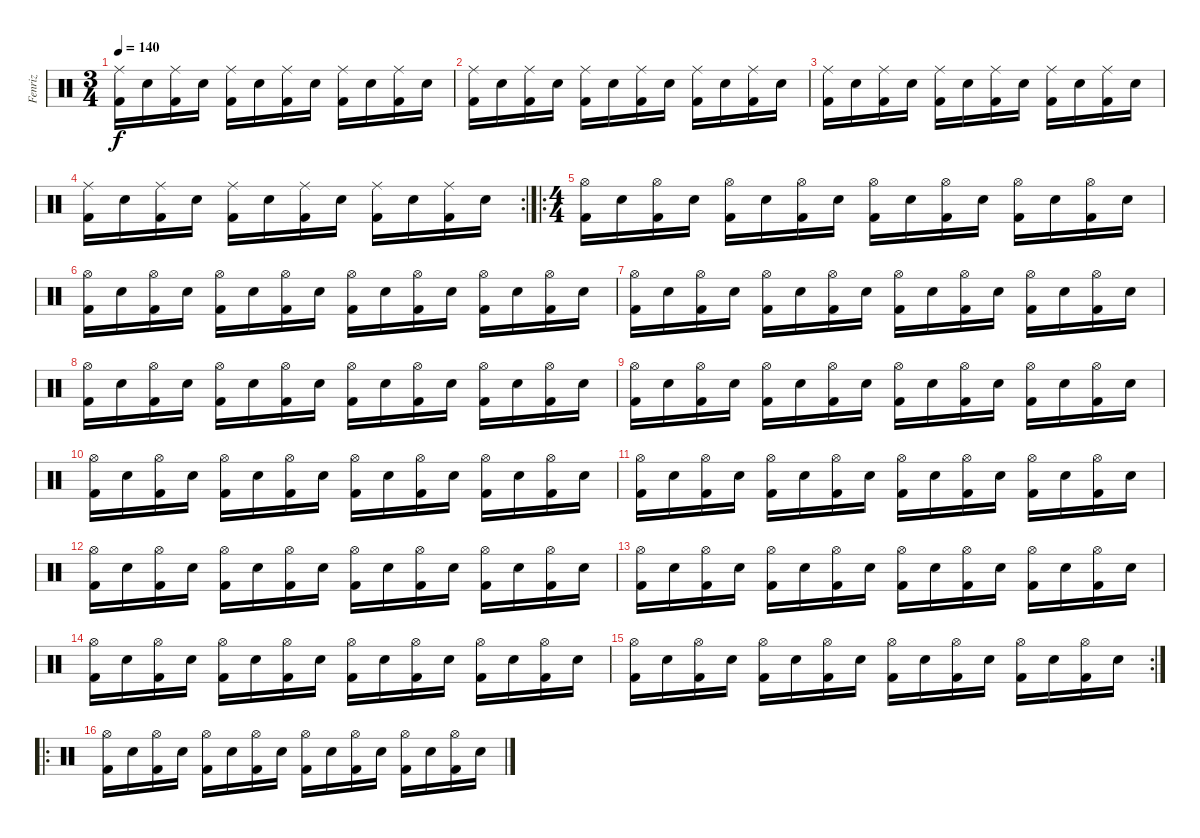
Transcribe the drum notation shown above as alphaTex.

\track ("Fenriz" "Fenriz") {instrument percussion}
\staff {score}
\articulation defaults
\ts (3 4)
\tempo 140
\clef neutral
\ks c
("Ride (middle)" "Kick (hit) 2").16{dy f} "Snare (hit) 2".16 ("Ride (middle)" "Kick (hit) 2").16 "Snare (hit) 2".16 ("Ride (middle)" "Kick (hit) 2").16 "Snare (hit) 2".16 ("Ride (middle)" "Kick (hit) 2").16 "Snare (hit) 2".16 ("Ride (middle)" "Kick (hit) 2").16 "Snare (hit) 2".16 ("Ride (middle)" "Kick (hit) 2").16 "Snare (hit) 2".16 |
("Ride (middle)" "Kick (hit) 2").16 "Snare (hit) 2".16 ("Ride (middle)" "Kick (hit) 2").16 "Snare (hit) 2".16 ("Ride (middle)" "Kick (hit) 2").16 "Snare (hit) 2".16 ("Ride (middle)" "Kick (hit) 2").16 "Snare (hit) 2".16 ("Ride (middle)" "Kick (hit) 2").16 "Snare (hit) 2".16 ("Ride (middle)" "Kick (hit) 2").16 "Snare (hit) 2".16 |
("Ride (middle)" "Kick (hit) 2").16 "Snare (hit) 2".16 ("Ride (middle)" "Kick (hit) 2").16 "Snare (hit) 2".16 ("Ride (middle)" "Kick (hit) 2").16 "Snare (hit) 2".16 ("Ride (middle)" "Kick (hit) 2").16 "Snare (hit) 2".16 ("Ride (middle)" "Kick (hit) 2").16 "Snare (hit) 2".16 ("Ride (middle)" "Kick (hit) 2").16 "Snare (hit) 2".16 |
\rc 2
("Ride (middle)" "Kick (hit) 2").16 "Snare (hit) 2".16 ("Ride (middle)" "Kick (hit) 2").16 "Snare (hit) 2".16 ("Ride (middle)" "Kick (hit) 2").16 "Snare (hit) 2".16 ("Ride (middle)" "Kick (hit) 2").16 "Snare (hit) 2".16 ("Ride (middle)" "Kick (hit) 2").16 "Snare (hit) 2".16 ("Ride (middle)" "Kick (hit) 2").16 "Snare (hit) 2".16 |
\ro
\ts (4 4)
("Hi-Hat (open)" "Kick (hit) 2").16 "Snare (hit) 2".16 ("Hi-Hat (open)" "Kick (hit) 2").16 "Snare (hit) 2".16 ("Hi-Hat (open)" "Kick (hit) 2").16 "Snare (hit) 2".16 ("Hi-Hat (open)" "Kick (hit) 2").16 "Snare (hit) 2".16 ("Hi-Hat (open)" "Kick (hit) 2").16 "Snare (hit) 2".16 ("Hi-Hat (open)" "Kick (hit) 2").16 "Snare (hit) 2".16 ("Hi-Hat (open)" "Kick (hit) 2").16 "Snare (hit) 2".16 ("Hi-Hat (open)" "Kick (hit) 2").16 "Snare (hit) 2".16 |
("Hi-Hat (open)" "Kick (hit) 2").16 "Snare (hit) 2".16 ("Hi-Hat (open)" "Kick (hit) 2").16 "Snare (hit) 2".16 ("Hi-Hat (open)" "Kick (hit) 2").16 "Snare (hit) 2".16 ("Hi-Hat (open)" "Kick (hit) 2").16 "Snare (hit) 2".16 ("Hi-Hat (open)" "Kick (hit) 2").16 "Snare (hit) 2".16 ("Hi-Hat (open)" "Kick (hit) 2").16 "Snare (hit) 2".16 ("Hi-Hat (open)" "Kick (hit) 2").16 "Snare (hit) 2".16 ("Hi-Hat (open)" "Kick (hit) 2").16 "Snare (hit) 2".16 |
("Hi-Hat (open)" "Kick (hit) 2").16 "Snare (hit) 2".16 ("Hi-Hat (open)" "Kick (hit) 2").16 "Snare (hit) 2".16 ("Hi-Hat (open)" "Kick (hit) 2").16 "Snare (hit) 2".16 ("Hi-Hat (open)" "Kick (hit) 2").16 "Snare (hit) 2".16 ("Hi-Hat (open)" "Kick (hit) 2").16 "Snare (hit) 2".16 ("Hi-Hat (open)" "Kick (hit) 2").16 "Snare (hit) 2".16 ("Hi-Hat (open)" "Kick (hit) 2").16 "Snare (hit) 2".16 ("Hi-Hat (open)" "Kick (hit) 2").16 "Snare (hit) 2".16 |
("Hi-Hat (open)" "Kick (hit) 2").16 "Snare (hit) 2".16 ("Hi-Hat (open)" "Kick (hit) 2").16 "Snare (hit) 2".16 ("Hi-Hat (open)" "Kick (hit) 2").16 "Snare (hit) 2".16 ("Hi-Hat (open)" "Kick (hit) 2").16 "Snare (hit) 2".16 ("Hi-Hat (open)" "Kick (hit) 2").16 "Snare (hit) 2".16 ("Hi-Hat (open)" "Kick (hit) 2").16 "Snare (hit) 2".16 ("Hi-Hat (open)" "Kick (hit) 2").16 "Snare (hit) 2".16 ("Hi-Hat (open)" "Kick (hit) 2").16 "Snare (hit) 2".16 |
("Hi-Hat (open)" "Kick (hit) 2").16 "Snare (hit) 2".16 ("Hi-Hat (open)" "Kick (hit) 2").16 "Snare (hit) 2".16 ("Hi-Hat (open)" "Kick (hit) 2").16 "Snare (hit) 2".16 ("Hi-Hat (open)" "Kick (hit) 2").16 "Snare (hit) 2".16 ("Hi-Hat (open)" "Kick (hit) 2").16 "Snare (hit) 2".16 ("Hi-Hat (open)" "Kick (hit) 2").16 "Snare (hit) 2".16 ("Hi-Hat (open)" "Kick (hit) 2").16 "Snare (hit) 2".16 ("Hi-Hat (open)" "Kick (hit) 2").16 "Snare (hit) 2".16 |
("Hi-Hat (open)" "Kick (hit) 2").16 "Snare (hit) 2".16 ("Hi-Hat (open)" "Kick (hit) 2").16 "Snare (hit) 2".16 ("Hi-Hat (open)" "Kick (hit) 2").16 "Snare (hit) 2".16 ("Hi-Hat (open)" "Kick (hit) 2").16 "Snare (hit) 2".16 ("Hi-Hat (open)" "Kick (hit) 2").16 "Snare (hit) 2".16 ("Hi-Hat (open)" "Kick (hit) 2").16 "Snare (hit) 2".16 ("Hi-Hat (open)" "Kick (hit) 2").16 "Snare (hit) 2".16 ("Hi-Hat (open)" "Kick (hit) 2").16 "Snare (hit) 2".16 |
("Hi-Hat (open)" "Kick (hit) 2").16 "Snare (hit) 2".16 ("Hi-Hat (open)" "Kick (hit) 2").16 "Snare (hit) 2".16 ("Hi-Hat (open)" "Kick (hit) 2").16 "Snare (hit) 2".16 ("Hi-Hat (open)" "Kick (hit) 2").16 "Snare (hit) 2".16 ("Hi-Hat (open)" "Kick (hit) 2").16 "Snare (hit) 2".16 ("Hi-Hat (open)" "Kick (hit) 2").16 "Snare (hit) 2".16 ("Hi-Hat (open)" "Kick (hit) 2").16 "Snare (hit) 2".16 ("Hi-Hat (open)" "Kick (hit) 2").16 "Snare (hit) 2".16 |
("Hi-Hat (open)" "Kick (hit) 2").16 "Snare (hit) 2".16 ("Hi-Hat (open)" "Kick (hit) 2").16 "Snare (hit) 2".16 ("Hi-Hat (open)" "Kick (hit) 2").16 "Snare (hit) 2".16 ("Hi-Hat (open)" "Kick (hit) 2").16 "Snare (hit) 2".16 ("Hi-Hat (open)" "Kick (hit) 2").16 "Snare (hit) 2".16 ("Hi-Hat (open)" "Kick (hit) 2").16 "Snare (hit) 2".16 ("Hi-Hat (open)" "Kick (hit) 2").16 "Snare (hit) 2".16 ("Hi-Hat (open)" "Kick (hit) 2").16 "Snare (hit) 2".16 |
("Hi-Hat (open)" "Kick (hit) 2").16 "Snare (hit) 2".16 ("Hi-Hat (open)" "Kick (hit) 2").16 "Snare (hit) 2".16 ("Hi-Hat (open)" "Kick (hit) 2").16 "Snare (hit) 2".16 ("Hi-Hat (open)" "Kick (hit) 2").16 "Snare (hit) 2".16 ("Hi-Hat (open)" "Kick (hit) 2").16 "Snare (hit) 2".16 ("Hi-Hat (open)" "Kick (hit) 2").16 "Snare (hit) 2".16 ("Hi-Hat (open)" "Kick (hit) 2").16 "Snare (hit) 2".16 ("Hi-Hat (open)" "Kick (hit) 2").16 "Snare (hit) 2".16 |
("Hi-Hat (open)" "Kick (hit) 2").16 "Snare (hit) 2".16 ("Hi-Hat (open)" "Kick (hit) 2").16 "Snare (hit) 2".16 ("Hi-Hat (open)" "Kick (hit) 2").16 "Snare (hit) 2".16 ("Hi-Hat (open)" "Kick (hit) 2").16 "Snare (hit) 2".16 ("Hi-Hat (open)" "Kick (hit) 2").16 "Snare (hit) 2".16 ("Hi-Hat (open)" "Kick (hit) 2").16 "Snare (hit) 2".16 ("Hi-Hat (open)" "Kick (hit) 2").16 "Snare (hit) 2".16 ("Hi-Hat (open)" "Kick (hit) 2").16 "Snare (hit) 2".16 |
\rc 2
("Hi-Hat (open)" "Kick (hit) 2").16 "Snare (hit) 2".16 ("Hi-Hat (open)" "Kick (hit) 2").16 "Snare (hit) 2".16 ("Hi-Hat (open)" "Kick (hit) 2").16 "Snare (hit) 2".16 ("Hi-Hat (open)" "Kick (hit) 2").16 "Snare (hit) 2".16 ("Hi-Hat (open)" "Kick (hit) 2").16 "Snare (hit) 2".16 ("Hi-Hat (open)" "Kick (hit) 2").16 "Snare (hit) 2".16 ("Hi-Hat (open)" "Kick (hit) 2").16 "Snare (hit) 2".16 ("Hi-Hat (open)" "Kick (hit) 2").16 "Snare (hit) 2".16 |
\ro
("Hi-Hat (open)" "Kick (hit) 2").16 "Snare (hit) 2".16 ("Hi-Hat (open)" "Kick (hit) 2").16 "Snare (hit) 2".16 ("Hi-Hat (open)" "Kick (hit) 2").16 "Snare (hit) 2".16 ("Hi-Hat (open)" "Kick (hit) 2").16 "Snare (hit) 2".16 ("Hi-Hat (open)" "Kick (hit) 2").16 "Snare (hit) 2".16 ("Hi-Hat (open)" "Kick (hit) 2").16 "Snare (hit) 2".16 ("Hi-Hat (open)" "Kick (hit) 2").16 "Snare (hit) 2".16 ("Hi-Hat (open)" "Kick (hit) 2").16 "Snare (hit) 2".16
